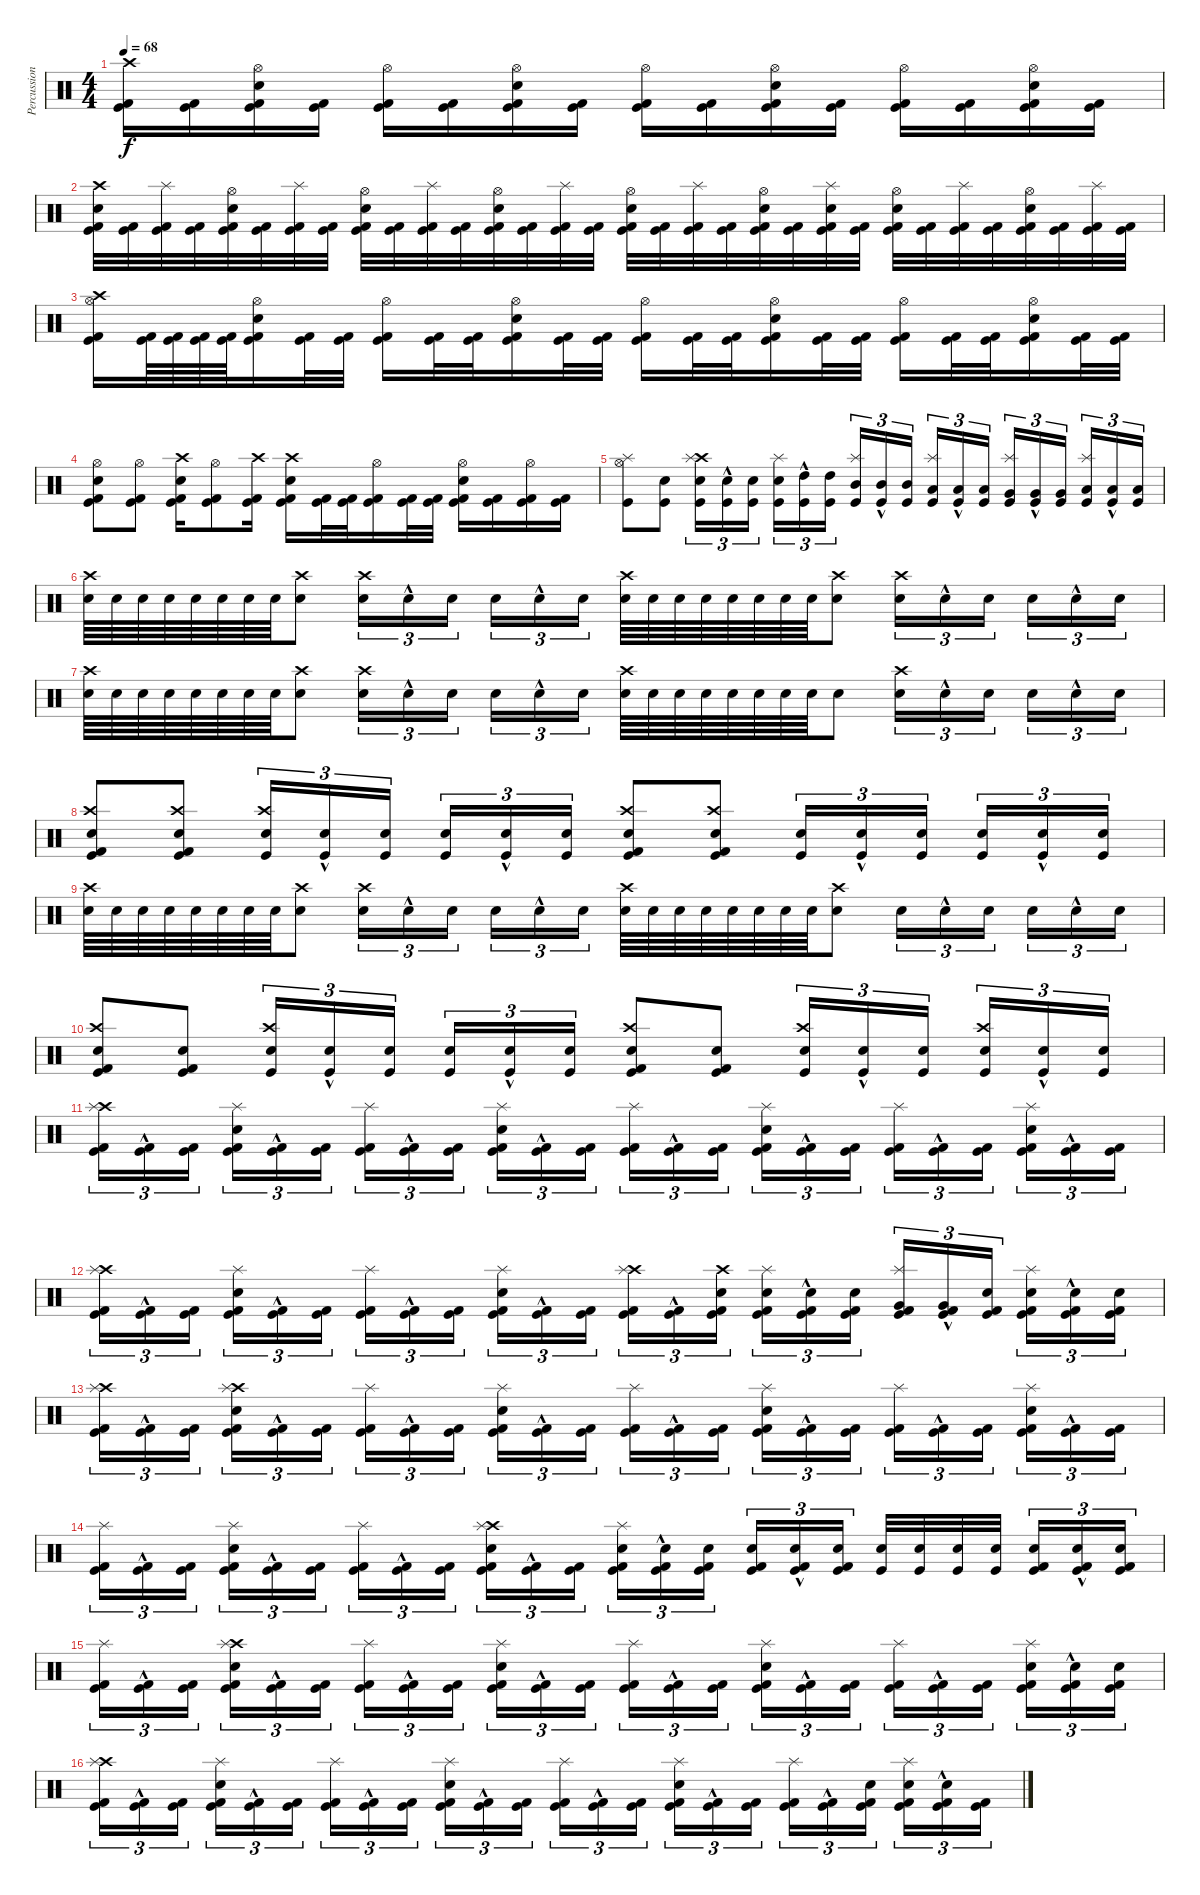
\track ("Percussion" "Percussion") {instrument percussion}
\staff {score}
\articulation defaults
\ts (4 4)
\tempo 68
\clef neutral
\ks c
("Kick (hit)" "Kick (hit) 2" "Crash high (hit)").16{dy f} ("Kick (hit)" "Kick (hit) 2").16 ("Kick (hit)" "Kick (hit) 2" "Snare (hit) 2" "Hi-Hat (open)").16 ("Kick (hit)" "Kick (hit) 2").16 ("Kick (hit)" "Kick (hit) 2" "Hi-Hat (open)").16 ("Kick (hit)" "Kick (hit) 2").16 ("Kick (hit)" "Kick (hit) 2" "Snare (hit) 2" "Hi-Hat (open)").16 ("Kick (hit)" "Kick (hit) 2").16 ("Kick (hit)" "Kick (hit) 2" "Hi-Hat (open)").16 ("Kick (hit)" "Kick (hit) 2").16 ("Kick (hit)" "Kick (hit) 2" "Snare (hit) 2" "Hi-Hat (open)").16 ("Kick (hit)" "Kick (hit) 2").16 ("Kick (hit)" "Kick (hit) 2" "Hi-Hat (open)").16 ("Kick (hit)" "Kick (hit) 2").16 ("Kick (hit)" "Kick (hit) 2" "Snare (hit) 2" "Hi-Hat (open)").16 ("Kick (hit)" "Kick (hit) 2").16 |
("Kick (hit)" "Kick (hit) 2" "Snare (hit) 2" "Crash high (hit)").32 ("Kick (hit)" "Kick (hit) 2").32 ("Kick (hit)" "Kick (hit) 2" "Splash (hit)").32 ("Kick (hit)" "Kick (hit) 2").32 ("Kick (hit)" "Kick (hit) 2" "Snare (hit) 2" "Hi-Hat (open)").32 ("Kick (hit)" "Kick (hit) 2").32 ("Kick (hit)" "Kick (hit) 2" "Splash (hit)").32 ("Kick (hit)" "Kick (hit) 2").32 ("Kick (hit)" "Kick (hit) 2" "Snare (hit) 2" "Hi-Hat (open)").32 ("Kick (hit)" "Kick (hit) 2").32 ("Kick (hit)" "Kick (hit) 2" "Splash (hit)").32 ("Kick (hit)" "Kick (hit) 2").32 ("Kick (hit)" "Kick (hit) 2" "Snare (hit) 2" "Hi-Hat (open)").32 ("Kick (hit)" "Kick (hit) 2").32 ("Kick (hit)" "Kick (hit) 2" "Splash (hit)").32 ("Kick (hit)" "Kick (hit) 2").32 ("Kick (hit)" "Kick (hit) 2" "Snare (hit) 2" "Hi-Hat (open)").32 ("Kick (hit)" "Kick (hit) 2").32 ("Kick (hit)" "Kick (hit) 2" "Splash (hit)").32 ("Kick (hit)" "Kick (hit) 2").32 ("Kick (hit)" "Kick (hit) 2" "Snare (hit) 2" "Hi-Hat (open)").32 ("Kick (hit)" "Kick (hit) 2").32 ("Kick (hit)" "Kick (hit) 2" "Snare (hit) 2" "Splash (hit)").32 ("Kick (hit)" "Kick (hit) 2").32 ("Kick (hit)" "Kick (hit) 2" "Snare (hit) 2" "Hi-Hat (open)").32 ("Kick (hit)" "Kick (hit) 2").32 ("Kick (hit)" "Kick (hit) 2" "Splash (hit)").32 ("Kick (hit)" "Kick (hit) 2").32 ("Kick (hit)" "Kick (hit) 2" "Snare (hit) 2" "Hi-Hat (open)").32 ("Kick (hit)" "Kick (hit) 2").32 ("Kick (hit)" "Kick (hit) 2" "Splash (hit)").32 ("Kick (hit)" "Kick (hit) 2").32 |
("Kick (hit)" "Kick (hit) 2" "Hi-Hat (open)" "Crash high (hit)").16 ("Kick (hit)" "Kick (hit) 2").64 ("Kick (hit)" "Kick (hit) 2").64 ("Kick (hit)" "Kick (hit) 2").64 ("Kick (hit)" "Kick (hit) 2").64 ("Kick (hit)" "Kick (hit) 2" "Snare (hit) 2" "Hi-Hat (open)").16 ("Kick (hit)" "Kick (hit) 2").32 ("Kick (hit)" "Kick (hit) 2").32 ("Kick (hit)" "Kick (hit) 2" "Hi-Hat (open)").16 ("Kick (hit)" "Kick (hit) 2").32 ("Kick (hit)" "Kick (hit) 2").32 ("Kick (hit)" "Kick (hit) 2" "Snare (hit) 2" "Hi-Hat (open)").16 ("Kick (hit)" "Kick (hit) 2").32 ("Kick (hit)" "Kick (hit) 2").32 ("Kick (hit)" "Kick (hit) 2" "Hi-Hat (open)").16 ("Kick (hit)" "Kick (hit) 2").32 ("Kick (hit)" "Kick (hit) 2").32 ("Kick (hit)" "Kick (hit) 2" "Snare (hit) 2" "Hi-Hat (open)").16 ("Kick (hit)" "Kick (hit) 2").32 ("Kick (hit)" "Kick (hit) 2").32 ("Kick (hit)" "Kick (hit) 2" "Hi-Hat (open)").16 ("Kick (hit)" "Kick (hit) 2").32 ("Kick (hit)" "Kick (hit) 2").32 ("Kick (hit)" "Kick (hit) 2" "Snare (hit) 2" "Hi-Hat (open)").16 ("Kick (hit)" "Kick (hit) 2").32 ("Kick (hit)" "Kick (hit) 2").32 |
("Kick (hit)" "Kick (hit) 2" "Snare (hit) 2" "Hi-Hat (open)").8 ("Kick (hit)" "Kick (hit) 2" "Hi-Hat (open)").8 ("Kick (hit)" "Kick (hit) 2" "Snare (hit) 2" "Crash high (hit)").16 ("Kick (hit)" "Kick (hit) 2" "Hi-Hat (open)").8 ("Kick (hit)" "Kick (hit) 2" "Crash high (hit)").16 ("Kick (hit)" "Kick (hit) 2" "Snare (hit) 2" "Crash high (hit)").16 ("Kick (hit)" "Kick (hit) 2").32 ("Kick (hit)" "Kick (hit) 2").32 ("Kick (hit)" "Kick (hit) 2" "Hi-Hat (open)").16 ("Kick (hit)" "Kick (hit) 2").32 ("Kick (hit)" "Kick (hit) 2").32 ("Kick (hit)" "Kick (hit) 2" "Snare (hit) 2" "Hi-Hat (open)").16 ("Kick (hit)" "Kick (hit) 2").16 ("Kick (hit)" "Kick (hit) 2" "Hi-Hat (open)").16 ("Kick (hit)" "Kick (hit) 2").16 |
("Kick (hit)" "Hi-Hat (open)" "Splash (hit)").8 ("Kick (hit)" "Snare (hit) 2").8 ("Kick (hit)" "Snare (hit) 2" "Crash high (hit)" "Splash (hit)").16{tu (3 2)} ("Kick (hit)"{hac} "Snare (hit) 2"{hac}).16{tu (3 2)} ("Kick (hit)" "Snare (hit) 2").16{tu (3 2)} ("Kick (hit)" "Snare (hit) 2" "Splash (hit)").16{tu (3 2)} ("Kick (hit)"{hac} "High Tom (hit)"{hac}).16{tu (3 2)} ("Kick (hit)" "High Tom (hit)").16{tu (3 2)} ("Kick (hit)" "Mid Tom (hit)" "Splash (hit)").16{tu (3 2)} ("Kick (hit)"{hac} "Mid Tom (hit)"{hac}).16{tu (3 2)} ("Kick (hit)" "Mid Tom (hit)").16{tu (3 2)} ("Kick (hit)" "Low Tom (hit)" "Splash (hit)").16{tu (3 2)} ("Kick (hit)"{hac} "Low Tom (hit)"{hac}).16{tu (3 2)} ("Kick (hit)" "Low Tom (hit)").16{tu (3 2)} ("Kick (hit)" "Very Low Tom (hit)" "Splash (hit)").16{tu (3 2)} ("Kick (hit)"{hac} "Very Low Tom (hit)"{hac}).16{tu (3 2)} ("Kick (hit)" "Very Low Tom (hit)").16{tu (3 2)} ("Kick (hit)" "Low Floor Tom (hit)" "Splash (hit)").16{tu (3 2)} ("Kick (hit)"{hac} "Low Floor Tom (hit)"{hac}).16{tu (3 2)} ("Kick (hit)" "Low Floor Tom (hit)").16{tu (3 2)} |
("Snare (hit) 2" "Crash high (hit)").64 "Snare (hit) 2".64 "Snare (hit) 2".64 "Snare (hit) 2".64 "Snare (hit) 2".64 "Snare (hit) 2".64 "Snare (hit) 2".64 "Snare (hit) 2".64 ("Snare (hit) 2" "Crash high (hit)").8 ("Snare (hit) 2" "Crash high (hit)").16{tu (3 2)} "Snare (hit) 2"{hac}.16{tu (3 2)} "Snare (hit) 2".16{tu (3 2)} "Snare (hit) 2".16{tu (3 2)} "Snare (hit) 2"{hac}.16{tu (3 2)} "Snare (hit) 2".16{tu (3 2)} ("Snare (hit) 2" "Crash high (hit)").64 "Snare (hit) 2".64 "Snare (hit) 2".64 "Snare (hit) 2".64 "Snare (hit) 2".64 "Snare (hit) 2".64 "Snare (hit) 2".64 "Snare (hit) 2".64 ("Snare (hit) 2" "Crash high (hit)").8 ("Snare (hit) 2" "Crash high (hit)").16{tu (3 2)} "Snare (hit) 2"{hac}.16{tu (3 2)} "Snare (hit) 2".16{tu (3 2)} "Snare (hit) 2".16{tu (3 2)} "Snare (hit) 2"{hac}.16{tu (3 2)} "Snare (hit) 2".16{tu (3 2)} |
("Snare (hit) 2" "Crash high (hit)").64 "Snare (hit) 2".64 "Snare (hit) 2".64 "Snare (hit) 2".64 "Snare (hit) 2".64 "Snare (hit) 2".64 "Snare (hit) 2".64 "Snare (hit) 2".64 ("Snare (hit) 2" "Crash high (hit)").8 ("Snare (hit) 2" "Crash high (hit)").16{tu (3 2)} "Snare (hit) 2"{hac}.16{tu (3 2)} "Snare (hit) 2".16{tu (3 2)} "Snare (hit) 2".16{tu (3 2)} "Snare (hit) 2"{hac}.16{tu (3 2)} "Snare (hit) 2".16{tu (3 2)} ("Snare (hit) 2" "Crash high (hit)").64 "Snare (hit) 2".64 "Snare (hit) 2".64 "Snare (hit) 2".64 "Snare (hit) 2".64 "Snare (hit) 2".64 "Snare (hit) 2".64 "Snare (hit) 2".64 "Snare (hit) 2".8 ("Snare (hit) 2" "Crash high (hit)").16{tu (3 2)} "Snare (hit) 2"{hac}.16{tu (3 2)} "Snare (hit) 2".16{tu (3 2)} "Snare (hit) 2".16{tu (3 2)} "Snare (hit) 2"{hac}.16{tu (3 2)} "Snare (hit) 2".16{tu (3 2)} |
("Kick (hit)" "Kick (hit) 2" "Snare (hit) 2" "Crash high (hit)").8 ("Kick (hit)" "Kick (hit) 2" "Snare (hit) 2" "Crash high (hit)").8 ("Kick (hit)" "Snare (hit) 2" "Crash high (hit)").16{tu (3 2)} ("Kick (hit)"{hac} "Snare (hit) 2"{hac}).16{tu (3 2)} ("Kick (hit)" "Snare (hit) 2").16{tu (3 2)} ("Kick (hit)" "Snare (hit) 2").16{tu (3 2)} ("Kick (hit)"{hac} "Snare (hit) 2"{hac}).16{tu (3 2)} ("Kick (hit)" "Snare (hit) 2").16{tu (3 2)} ("Kick (hit)" "Kick (hit) 2" "Snare (hit) 2" "Crash high (hit)").8 ("Kick (hit)" "Kick (hit) 2" "Snare (hit) 2" "Crash high (hit)").8 ("Kick (hit)" "Snare (hit) 2").16{tu (3 2)} ("Kick (hit)"{hac} "Snare (hit) 2"{hac}).16{tu (3 2)} ("Kick (hit)" "Snare (hit) 2").16{tu (3 2)} ("Kick (hit)" "Snare (hit) 2").16{tu (3 2)} ("Kick (hit)"{hac} "Snare (hit) 2"{hac}).16{tu (3 2)} ("Kick (hit)" "Snare (hit) 2").16{tu (3 2)} |
("Snare (hit) 2" "Crash high (hit)").64 "Snare (hit) 2".64 "Snare (hit) 2".64 "Snare (hit) 2".64 "Snare (hit) 2".64 "Snare (hit) 2".64 "Snare (hit) 2".64 "Snare (hit) 2".64 ("Snare (hit) 2" "Crash high (hit)").8 ("Snare (hit) 2" "Crash high (hit)").16{tu (3 2)} "Snare (hit) 2"{hac}.16{tu (3 2)} "Snare (hit) 2".16{tu (3 2)} "Snare (hit) 2".16{tu (3 2)} "Snare (hit) 2"{hac}.16{tu (3 2)} "Snare (hit) 2".16{tu (3 2)} ("Snare (hit) 2" "Crash high (hit)").64 "Snare (hit) 2".64 "Snare (hit) 2".64 "Snare (hit) 2".64 "Snare (hit) 2".64 "Snare (hit) 2".64 "Snare (hit) 2".64 "Snare (hit) 2".64 ("Snare (hit) 2" "Crash high (hit)").8 "Snare (hit) 2".16{tu (3 2)} "Snare (hit) 2"{hac}.16{tu (3 2)} "Snare (hit) 2".16{tu (3 2)} "Snare (hit) 2".16{tu (3 2)} "Snare (hit) 2"{hac}.16{tu (3 2)} "Snare (hit) 2".16{tu (3 2)} |
("Kick (hit)" "Kick (hit) 2" "Snare (hit) 2" "Crash high (hit)").8 ("Kick (hit)" "Kick (hit) 2" "Snare (hit) 2").8 ("Kick (hit)" "Snare (hit) 2" "Crash high (hit)").16{tu (3 2)} ("Kick (hit)"{hac} "Snare (hit) 2"{hac}).16{tu (3 2)} ("Kick (hit)" "Snare (hit) 2").16{tu (3 2)} ("Kick (hit)" "Snare (hit) 2").16{tu (3 2)} ("Kick (hit)"{hac} "Snare (hit) 2"{hac}).16{tu (3 2)} ("Kick (hit)" "Snare (hit) 2").16{tu (3 2)} ("Kick (hit)" "Kick (hit) 2" "Snare (hit) 2" "Crash high (hit)").8 ("Kick (hit)" "Kick (hit) 2" "Snare (hit) 2").8 ("Kick (hit)" "Snare (hit) 2" "Crash high (hit)").16{tu (3 2)} ("Kick (hit)"{hac} "Snare (hit) 2"{hac}).16{tu (3 2)} ("Kick (hit)" "Snare (hit) 2").16{tu (3 2)} ("Kick (hit)" "Snare (hit) 2" "Crash high (hit)").16{tu (3 2)} ("Kick (hit)"{hac} "Snare (hit) 2"{hac}).16{tu (3 2)} ("Kick (hit)" "Snare (hit) 2").16{tu (3 2)} |
\section ("" "")
("Kick (hit)" "Kick (hit) 2" "Crash high (hit)" "Splash (hit)").16{tu (3 2)} ("Kick (hit)"{hac} "Kick (hit) 2"{hac}).16{tu (3 2)} ("Kick (hit)" "Kick (hit) 2").16{tu (3 2)} ("Kick (hit)" "Kick (hit) 2" "Snare (hit) 2" "Splash (hit)").16{tu (3 2)} ("Kick (hit)"{hac} "Kick (hit) 2"{hac}).16{tu (3 2)} ("Kick (hit)" "Kick (hit) 2").16{tu (3 2)} ("Kick (hit)" "Kick (hit) 2" "Splash (hit)").16{tu (3 2)} ("Kick (hit)"{hac} "Kick (hit) 2"{hac}).16{tu (3 2)} ("Kick (hit)" "Kick (hit) 2").16{tu (3 2)} ("Kick (hit)" "Kick (hit) 2" "Snare (hit) 2" "Splash (hit)").16{tu (3 2)} ("Kick (hit)"{hac} "Kick (hit) 2"{hac}).16{tu (3 2)} ("Kick (hit)" "Kick (hit) 2").16{tu (3 2)} ("Kick (hit)" "Kick (hit) 2" "Splash (hit)").16{tu (3 2)} ("Kick (hit)"{hac} "Kick (hit) 2"{hac}).16{tu (3 2)} ("Kick (hit)" "Kick (hit) 2").16{tu (3 2)} ("Kick (hit)" "Kick (hit) 2" "Snare (hit) 2" "Splash (hit)").16{tu (3 2)} ("Kick (hit)"{hac} "Kick (hit) 2"{hac}).16{tu (3 2)} ("Kick (hit)" "Kick (hit) 2").16{tu (3 2)} ("Kick (hit)" "Kick (hit) 2" "Splash (hit)").16{tu (3 2)} ("Kick (hit)"{hac} "Kick (hit) 2"{hac}).16{tu (3 2)} ("Kick (hit)" "Kick (hit) 2").16{tu (3 2)} ("Kick (hit)" "Kick (hit) 2" "Snare (hit) 2" "Splash (hit)").16{tu (3 2)} ("Kick (hit)"{hac} "Kick (hit) 2"{hac}).16{tu (3 2)} ("Kick (hit)" "Kick (hit) 2").16{tu (3 2)} |
("Kick (hit)" "Kick (hit) 2" "Crash high (hit)" "Splash (hit)").16{tu (3 2)} ("Kick (hit)"{hac} "Kick (hit) 2"{hac}).16{tu (3 2)} ("Kick (hit)" "Kick (hit) 2").16{tu (3 2)} ("Kick (hit)" "Kick (hit) 2" "Snare (hit) 2" "Splash (hit)").16{tu (3 2)} ("Kick (hit)"{hac} "Kick (hit) 2"{hac}).16{tu (3 2)} ("Kick (hit)" "Kick (hit) 2").16{tu (3 2)} ("Kick (hit)" "Kick (hit) 2" "Splash (hit)").16{tu (3 2)} ("Kick (hit)"{hac} "Kick (hit) 2"{hac}).16{tu (3 2)} ("Kick (hit)" "Kick (hit) 2").16{tu (3 2)} ("Kick (hit)" "Kick (hit) 2" "Snare (hit) 2" "Splash (hit)").16{tu (3 2)} ("Kick (hit)"{hac} "Kick (hit) 2"{hac}).16{tu (3 2)} ("Kick (hit)" "Kick (hit) 2").16{tu (3 2)} ("Kick (hit)" "Kick (hit) 2" "Crash high (hit)" "Splash (hit)").16{tu (3 2)} ("Kick (hit)"{hac} "Kick (hit) 2"{hac}).16{tu (3 2)} ("Kick (hit)" "Kick (hit) 2" "Snare (hit) 2" "Crash high (hit)").16{tu (3 2)} ("Kick (hit)" "Kick (hit) 2" "Snare (hit) 2" "Splash (hit)").16{tu (3 2)} ("Kick (hit)"{hac} "Kick (hit) 2"{hac} "Snare (hit) 2"{hac}).16{tu (3 2)} ("Kick (hit)" "Kick (hit) 2" "Snare (hit) 2").16{tu (3 2)} ("Kick (hit)" "Kick (hit) 2" "Very Low Tom (hit)" "Splash (hit)").16{tu (3 2)} ("Kick (hit)"{hac} "Kick (hit) 2"{hac} "Very Low Tom (hit)"{hac}).16{tu (3 2)} ("Kick (hit)" "Kick (hit) 2" "Snare (hit) 2").16{tu (3 2)} ("Kick (hit)" "Kick (hit) 2" "Snare (hit) 2" "Splash (hit)").16{tu (3 2)} ("Kick (hit)"{hac} "Kick (hit) 2"{hac} "Snare (hit) 2"{hac}).16{tu (3 2)} ("Kick (hit)" "Kick (hit) 2" "Snare (hit) 2").16{tu (3 2)} |
("Kick (hit)" "Kick (hit) 2" "Crash high (hit)" "Splash (hit)").16{tu (3 2)} ("Kick (hit)"{hac} "Kick (hit) 2"{hac}).16{tu (3 2)} ("Kick (hit)" "Kick (hit) 2").16{tu (3 2)} ("Kick (hit)" "Kick (hit) 2" "Snare (hit) 2" "Crash high (hit)" "Splash (hit)").16{tu (3 2)} ("Kick (hit)"{hac} "Kick (hit) 2"{hac}).16{tu (3 2)} ("Kick (hit)" "Kick (hit) 2").16{tu (3 2)} ("Kick (hit)" "Kick (hit) 2" "Splash (hit)").16{tu (3 2)} ("Kick (hit)"{hac} "Kick (hit) 2"{hac}).16{tu (3 2)} ("Kick (hit)" "Kick (hit) 2").16{tu (3 2)} ("Kick (hit)" "Kick (hit) 2" "Snare (hit) 2" "Splash (hit)").16{tu (3 2)} ("Kick (hit)"{hac} "Kick (hit) 2"{hac}).16{tu (3 2)} ("Kick (hit)" "Kick (hit) 2").16{tu (3 2)} ("Kick (hit)" "Kick (hit) 2" "Splash (hit)").16{tu (3 2)} ("Kick (hit)"{hac} "Kick (hit) 2"{hac}).16{tu (3 2)} ("Kick (hit)" "Kick (hit) 2").16{tu (3 2)} ("Kick (hit)" "Kick (hit) 2" "Snare (hit) 2" "Splash (hit)").16{tu (3 2)} ("Kick (hit)"{hac} "Kick (hit) 2"{hac}).16{tu (3 2)} ("Kick (hit)" "Kick (hit) 2").16{tu (3 2)} ("Kick (hit)" "Kick (hit) 2" "Splash (hit)").16{tu (3 2)} ("Kick (hit)"{hac} "Kick (hit) 2"{hac}).16{tu (3 2)} ("Kick (hit)" "Kick (hit) 2").16{tu (3 2)} ("Kick (hit)" "Kick (hit) 2" "Snare (hit) 2" "Splash (hit)").16{tu (3 2)} ("Kick (hit)"{hac} "Kick (hit) 2"{hac}).16{tu (3 2)} ("Kick (hit)" "Kick (hit) 2").16{tu (3 2)} |
("Kick (hit)" "Kick (hit) 2" "Splash (hit)").16{tu (3 2)} ("Kick (hit)"{hac} "Kick (hit) 2"{hac}).16{tu (3 2)} ("Kick (hit)" "Kick (hit) 2").16{tu (3 2)} ("Kick (hit)" "Kick (hit) 2" "Snare (hit) 2" "Splash (hit)").16{tu (3 2)} ("Kick (hit)"{hac} "Kick (hit) 2"{hac}).16{tu (3 2)} ("Kick (hit)" "Kick (hit) 2").16{tu (3 2)} ("Kick (hit)" "Kick (hit) 2" "Splash (hit)").16{tu (3 2)} ("Kick (hit)"{hac} "Kick (hit) 2"{hac}).16{tu (3 2)} ("Kick (hit)" "Kick (hit) 2").16{tu (3 2)} ("Kick (hit)" "Kick (hit) 2" "Snare (hit) 2" "Crash high (hit)" "Splash (hit)").16{tu (3 2)} ("Kick (hit)"{hac} "Kick (hit) 2"{hac}).16{tu (3 2)} ("Kick (hit)" "Kick (hit) 2").16{tu (3 2)} ("Kick (hit)" "Kick (hit) 2" "Snare (hit) 2" "Splash (hit)").16{tu (3 2)} ("Kick (hit)"{hac} "Kick (hit) 2"{hac} "Snare (hit) 2"{hac}).16{tu (3 2)} ("Kick (hit)" "Kick (hit) 2" "Snare (hit) 2").16{tu (3 2)} ("Kick (hit)" "Kick (hit) 2" "Snare (hit) 2").16{tu (3 2)} ("Kick (hit)"{hac} "Kick (hit) 2"{hac} "Snare (hit) 2"{hac}).16{tu (3 2)} ("Kick (hit)" "Kick (hit) 2" "Snare (hit) 2").16{tu (3 2)} ("Kick (hit)" "Snare (hit) 2").32 ("Kick (hit)" "Snare (hit) 2").32 ("Kick (hit)" "Snare (hit) 2").32 ("Kick (hit)" "Snare (hit) 2").32 ("Kick (hit)" "Kick (hit) 2" "Snare (hit) 2").16{tu (3 2)} ("Kick (hit)"{hac} "Kick (hit) 2"{hac} "Snare (hit) 2"{hac}).16{tu (3 2)} ("Kick (hit)" "Kick (hit) 2" "Snare (hit) 2").16{tu (3 2)} |
("Kick (hit)" "Kick (hit) 2" "Splash (hit)").16{tu (3 2)} ("Kick (hit)"{hac} "Kick (hit) 2"{hac}).16{tu (3 2)} ("Kick (hit)" "Kick (hit) 2").16{tu (3 2)} ("Kick (hit)" "Kick (hit) 2" "Snare (hit) 2" "Crash high (hit)" "Splash (hit)").16{tu (3 2)} ("Kick (hit)"{hac} "Kick (hit) 2"{hac}).16{tu (3 2)} ("Kick (hit)" "Kick (hit) 2").16{tu (3 2)} ("Kick (hit)" "Kick (hit) 2" "Splash (hit)").16{tu (3 2)} ("Kick (hit)"{hac} "Kick (hit) 2"{hac}).16{tu (3 2)} ("Kick (hit)" "Kick (hit) 2").16{tu (3 2)} ("Kick (hit)" "Kick (hit) 2" "Snare (hit) 2" "Splash (hit)").16{tu (3 2)} ("Kick (hit)"{hac} "Kick (hit) 2"{hac}).16{tu (3 2)} ("Kick (hit)" "Kick (hit) 2").16{tu (3 2)} ("Kick (hit)" "Kick (hit) 2" "Splash (hit)").16{tu (3 2)} ("Kick (hit)"{hac} "Kick (hit) 2"{hac}).16{tu (3 2)} ("Kick (hit)" "Kick (hit) 2").16{tu (3 2)} ("Kick (hit)" "Kick (hit) 2" "Snare (hit) 2" "Splash (hit)").16{tu (3 2)} ("Kick (hit)"{hac} "Kick (hit) 2"{hac}).16{tu (3 2)} ("Kick (hit)" "Kick (hit) 2").16{tu (3 2)} ("Kick (hit)" "Kick (hit) 2" "Splash (hit)").16{tu (3 2)} ("Kick (hit)"{hac} "Kick (hit) 2"{hac}).16{tu (3 2)} ("Kick (hit)" "Kick (hit) 2").16{tu (3 2)} ("Kick (hit)" "Kick (hit) 2" "Snare (hit) 2" "Splash (hit)").16{tu (3 2)} ("Kick (hit)"{hac} "Kick (hit) 2"{hac} "Snare (hit) 2"{hac}).16{tu (3 2)} ("Kick (hit)" "Kick (hit) 2" "Snare (hit) 2").16{tu (3 2)} |
("Kick (hit)" "Kick (hit) 2" "Crash high (hit)" "Splash (hit)").16{tu (3 2)} ("Kick (hit)"{hac} "Kick (hit) 2"{hac}).16{tu (3 2)} ("Kick (hit)" "Kick (hit) 2").16{tu (3 2)} ("Kick (hit)" "Kick (hit) 2" "Snare (hit) 2" "Splash (hit)").16{tu (3 2)} ("Kick (hit)"{hac} "Kick (hit) 2"{hac}).16{tu (3 2)} ("Kick (hit)" "Kick (hit) 2").16{tu (3 2)} ("Kick (hit)" "Kick (hit) 2" "Splash (hit)").16{tu (3 2)} ("Kick (hit)"{hac} "Kick (hit) 2"{hac}).16{tu (3 2)} ("Kick (hit)" "Kick (hit) 2").16{tu (3 2)} ("Kick (hit)" "Kick (hit) 2" "Snare (hit) 2" "Splash (hit)").16{tu (3 2)} ("Kick (hit)"{hac} "Kick (hit) 2"{hac}).16{tu (3 2)} ("Kick (hit)" "Kick (hit) 2").16{tu (3 2)} ("Kick (hit)" "Kick (hit) 2" "Splash (hit)").16{tu (3 2)} ("Kick (hit)"{hac} "Kick (hit) 2"{hac}).16{tu (3 2)} ("Kick (hit)" "Kick (hit) 2").16{tu (3 2)} ("Kick (hit)" "Kick (hit) 2" "Snare (hit) 2" "Splash (hit)").16{tu (3 2)} ("Kick (hit)"{hac} "Kick (hit) 2"{hac}).16{tu (3 2)} ("Kick (hit)" "Kick (hit) 2").16{tu (3 2)} ("Kick (hit)" "Kick (hit) 2" "Splash (hit)").16{tu (3 2)} ("Kick (hit)"{hac} "Kick (hit) 2"{hac}).16{tu (3 2)} ("Kick (hit)" "Kick (hit) 2" "Snare (hit) 2").16{tu (3 2)} ("Kick (hit)" "Kick (hit) 2" "Snare (hit) 2" "Splash (hit)").16{tu (3 2)} ("Kick (hit)"{hac} "Kick (hit) 2"{hac} "Snare (hit) 2"{hac}).16{tu (3 2)} ("Kick (hit)" "Kick (hit) 2").16{tu (3 2)}
